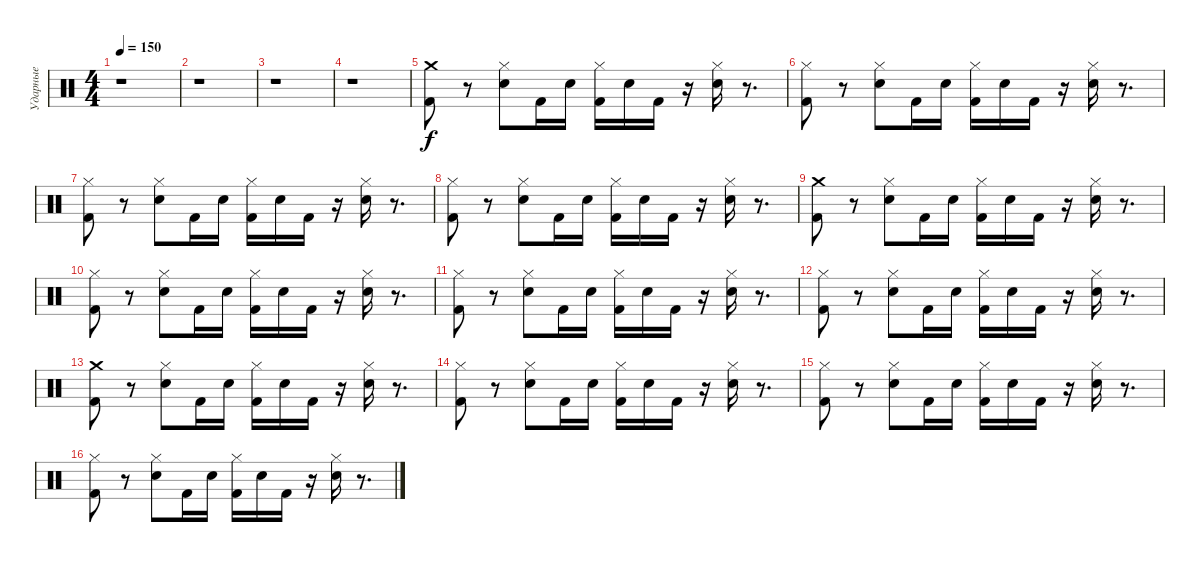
\track ("Ударные" "Ударные") {instrument percussion}
\staff {score}
\articulation defaults
\ts (4 4)
\tempo 150
\clef neutral
\ks c
r.1{dy f} |
r.1 |
r.1 |
r.1 |
("Crash medium (hit)" "Kick (hit) 2").8 r.8 ("Hi-Hat (closed)" "Electric Snare (hit)").8 "Kick (hit) 2".16 "Electric Snare (hit)".16 ("Hi-Hat (closed)" "Kick (hit) 2").16 "Electric Snare (hit)".16 "Kick (hit) 2".16 r.16 ("Hi-Hat (closed)" "Electric Snare (hit)").16 r.8{d} |
("Hi-Hat (closed)" "Kick (hit) 2").8 r.8 ("Hi-Hat (closed)" "Electric Snare (hit)").8 "Kick (hit) 2".16 "Electric Snare (hit)".16 ("Hi-Hat (closed)" "Kick (hit) 2").16 "Electric Snare (hit)".16 "Kick (hit) 2".16 r.16 ("Hi-Hat (closed)" "Electric Snare (hit)").16 r.8{d} |
("Hi-Hat (closed)" "Kick (hit) 2").8 r.8 ("Hi-Hat (closed)" "Electric Snare (hit)").8 "Kick (hit) 2".16 "Electric Snare (hit)".16 ("Hi-Hat (closed)" "Kick (hit) 2").16 "Electric Snare (hit)".16 "Kick (hit) 2".16 r.16 ("Hi-Hat (closed)" "Electric Snare (hit)").16 r.8{d} |
("Hi-Hat (closed)" "Kick (hit) 2").8 r.8 ("Hi-Hat (closed)" "Electric Snare (hit)").8 "Kick (hit) 2".16 "Electric Snare (hit)".16 ("Hi-Hat (closed)" "Kick (hit) 2").16 "Electric Snare (hit)".16 "Kick (hit) 2".16 r.16 ("Hi-Hat (closed)" "Electric Snare (hit)").16 r.8{d} |
("Crash medium (hit)" "Kick (hit) 2").8 r.8 ("Hi-Hat (closed)" "Electric Snare (hit)").8 "Kick (hit) 2".16 "Electric Snare (hit)".16 ("Hi-Hat (closed)" "Kick (hit) 2").16 "Electric Snare (hit)".16 "Kick (hit) 2".16 r.16 ("Hi-Hat (closed)" "Electric Snare (hit)").16 r.8{d} |
("Hi-Hat (closed)" "Kick (hit) 2").8 r.8 ("Hi-Hat (closed)" "Electric Snare (hit)").8 "Kick (hit) 2".16 "Electric Snare (hit)".16 ("Hi-Hat (closed)" "Kick (hit) 2").16 "Electric Snare (hit)".16 "Kick (hit) 2".16 r.16 ("Hi-Hat (closed)" "Electric Snare (hit)").16 r.8{d} |
("Hi-Hat (closed)" "Kick (hit) 2").8 r.8 ("Hi-Hat (closed)" "Electric Snare (hit)").8 "Kick (hit) 2".16 "Electric Snare (hit)".16 ("Hi-Hat (closed)" "Kick (hit) 2").16 "Electric Snare (hit)".16 "Kick (hit) 2".16 r.16 ("Hi-Hat (closed)" "Electric Snare (hit)").16 r.8{d} |
("Hi-Hat (closed)" "Kick (hit) 2").8 r.8 ("Hi-Hat (closed)" "Electric Snare (hit)").8 "Kick (hit) 2".16 "Electric Snare (hit)".16 ("Hi-Hat (closed)" "Kick (hit) 2").16 "Electric Snare (hit)".16 "Kick (hit) 2".16 r.16 ("Hi-Hat (closed)" "Electric Snare (hit)").16 r.8{d} |
("Crash medium (hit)" "Kick (hit) 2").8 r.8 ("Hi-Hat (closed)" "Electric Snare (hit)").8 "Kick (hit) 2".16 "Electric Snare (hit)".16 ("Hi-Hat (closed)" "Kick (hit) 2").16 "Electric Snare (hit)".16 "Kick (hit) 2".16 r.16 ("Hi-Hat (closed)" "Electric Snare (hit)").16 r.8{d} |
("Hi-Hat (closed)" "Kick (hit) 2").8 r.8 ("Hi-Hat (closed)" "Electric Snare (hit)").8 "Kick (hit) 2".16 "Electric Snare (hit)".16 ("Hi-Hat (closed)" "Kick (hit) 2").16 "Electric Snare (hit)".16 "Kick (hit) 2".16 r.16 ("Hi-Hat (closed)" "Electric Snare (hit)").16 r.8{d} |
("Hi-Hat (closed)" "Kick (hit) 2").8 r.8 ("Hi-Hat (closed)" "Electric Snare (hit)").8 "Kick (hit) 2".16 "Electric Snare (hit)".16 ("Hi-Hat (closed)" "Kick (hit) 2").16 "Electric Snare (hit)".16 "Kick (hit) 2".16 r.16 ("Hi-Hat (closed)" "Electric Snare (hit)").16 r.8{d} |
("Hi-Hat (closed)" "Kick (hit) 2").8 r.8 ("Hi-Hat (closed)" "Electric Snare (hit)").8 "Kick (hit) 2".16 "Electric Snare (hit)".16 ("Hi-Hat (closed)" "Kick (hit) 2").16 "Electric Snare (hit)".16 "Kick (hit) 2".16 r.16 ("Hi-Hat (closed)" "Electric Snare (hit)").16 r.8{d}
